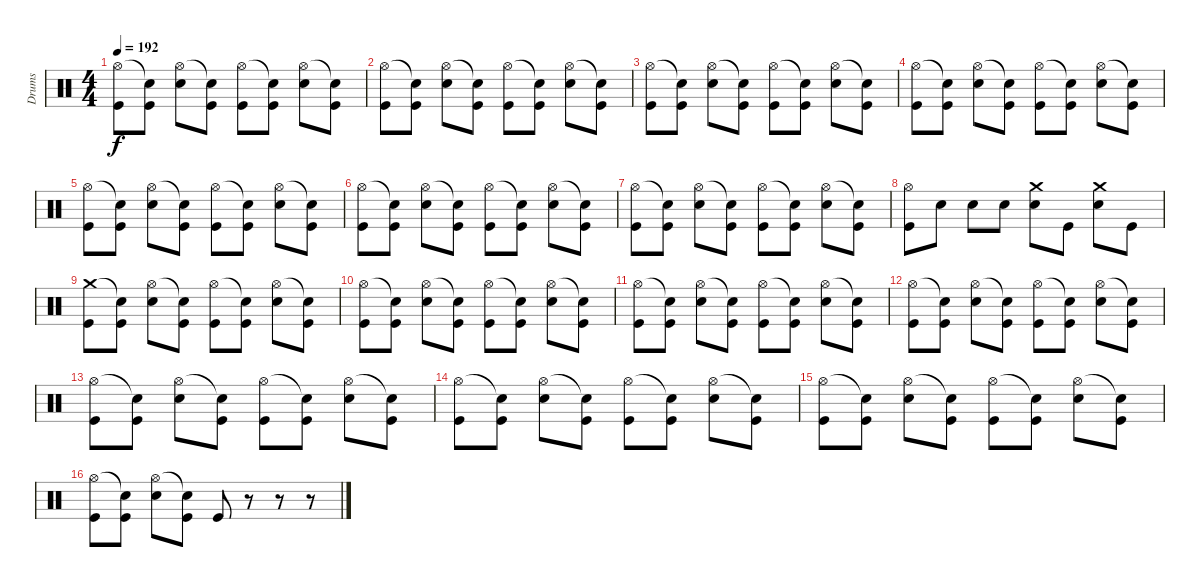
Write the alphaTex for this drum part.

\track ("Drums" "Drums") {instrument percussion}
\staff {score}
\articulation defaults
\ts (4 4)
\tempo 192
\clef neutral
\ks c
("Kick (hit)" "Hi-Hat (open)").8{dy f} ("Kick (hit)" "Snare (hit)"{t}).8 ("Snare (hit) 2" "Hi-Hat (open)").8 ("Kick (hit)" "Snare (hit)"{t}).8 ("Kick (hit)" "Hi-Hat (open)").8 ("Kick (hit)" "Snare (hit)"{t}).8 ("Snare (hit) 2" "Hi-Hat (open)").8 ("Kick (hit)" "Snare (hit)"{t}).8 |
("Kick (hit)" "Hi-Hat (open)").8 ("Kick (hit)" "Snare (hit)"{t}).8 ("Snare (hit) 2" "Hi-Hat (open)").8 ("Kick (hit)" "Snare (hit)"{t}).8 ("Kick (hit)" "Hi-Hat (open)").8 ("Kick (hit)" "Snare (hit)"{t}).8 ("Snare (hit) 2" "Hi-Hat (open)").8 ("Kick (hit)" "Snare (hit)"{t}).8 |
("Kick (hit)" "Hi-Hat (open)").8 ("Kick (hit)" "Snare (hit)"{t}).8 ("Snare (hit) 2" "Hi-Hat (open)").8 ("Kick (hit)" "Snare (hit)"{t}).8 ("Kick (hit)" "Hi-Hat (open)").8 ("Kick (hit)" "Snare (hit)"{t}).8 ("Snare (hit) 2" "Hi-Hat (open)").8 ("Kick (hit)" "Snare (hit)"{t}).8 |
("Kick (hit)" "Hi-Hat (open)").8 ("Kick (hit)" "Snare (hit)"{t}).8 ("Snare (hit) 2" "Hi-Hat (open)").8 ("Kick (hit)" "Snare (hit)"{t}).8 ("Kick (hit)" "Hi-Hat (open)").8 ("Kick (hit)" "Snare (hit)"{t}).8 ("Snare (hit) 2" "Hi-Hat (open)").8 ("Kick (hit)" "Snare (hit)"{t}).8 |
("Kick (hit)" "Hi-Hat (open)").8 ("Kick (hit)" "Snare (hit)"{t}).8 ("Snare (hit) 2" "Hi-Hat (open)").8 ("Kick (hit)" "Snare (hit)"{t}).8 ("Kick (hit)" "Hi-Hat (open)").8 ("Kick (hit)" "Snare (hit)"{t}).8 ("Snare (hit) 2" "Hi-Hat (open)").8 ("Kick (hit)" "Snare (hit)"{t}).8 |
("Kick (hit)" "Hi-Hat (open)").8 ("Kick (hit)" "Snare (hit)"{t}).8 ("Snare (hit) 2" "Hi-Hat (open)").8 ("Kick (hit)" "Snare (hit)"{t}).8 ("Kick (hit)" "Hi-Hat (open)").8 ("Kick (hit)" "Snare (hit)"{t}).8 ("Snare (hit) 2" "Hi-Hat (open)").8 ("Kick (hit)" "Snare (hit)"{t}).8 |
("Kick (hit)" "Hi-Hat (open)").8 ("Kick (hit)" "Snare (hit)"{t}).8 ("Snare (hit) 2" "Hi-Hat (open)").8 ("Kick (hit)" "Snare (hit)"{t}).8 ("Kick (hit)" "Hi-Hat (open)").8 ("Kick (hit)" "Snare (hit)"{t}).8 ("Snare (hit) 2" "Hi-Hat (open)").8 ("Kick (hit)" "Snare (hit)"{t}).8 |
("Kick (hit)" "Hi-Hat (open)").8 "Snare (hit) 2".8 "Snare (hit) 2".8 "Snare (hit) 2".8 ("Snare (hit) 2" "Crash medium (hit)").8 "Kick (hit)".8 ("Snare (hit) 2" "Crash medium (hit)").8 "Kick (hit)".8 |
("Kick (hit)" "Crash medium (hit)").8 ("Kick (hit)" "Snare (hit)"{t}).8 ("Snare (hit) 2" "Hi-Hat (open)").8 ("Kick (hit)" "Snare (hit)"{t}).8 ("Kick (hit)" "Hi-Hat (open)").8 ("Kick (hit)" "Snare (hit)"{t}).8 ("Snare (hit) 2" "Hi-Hat (open)").8 ("Kick (hit)" "Snare (hit)"{t}).8 |
("Kick (hit)" "Hi-Hat (open)").8 ("Kick (hit)" "Snare (hit)"{t}).8 ("Snare (hit) 2" "Hi-Hat (open)").8 ("Kick (hit)" "Snare (hit)"{t}).8 ("Kick (hit)" "Hi-Hat (open)").8 ("Kick (hit)" "Snare (hit)"{t}).8 ("Snare (hit) 2" "Hi-Hat (open)").8 ("Kick (hit)" "Snare (hit)"{t}).8 |
("Kick (hit)" "Hi-Hat (open)").8 ("Kick (hit)" "Snare (hit)"{t}).8 ("Snare (hit) 2" "Hi-Hat (open)").8 ("Kick (hit)" "Snare (hit)"{t}).8 ("Kick (hit)" "Hi-Hat (open)").8 ("Kick (hit)" "Snare (hit)"{t}).8 ("Snare (hit) 2" "Hi-Hat (open)").8 ("Kick (hit)" "Snare (hit)"{t}).8 |
("Kick (hit)" "Hi-Hat (open)").8 ("Kick (hit)" "Snare (hit)"{t}).8 ("Snare (hit) 2" "Hi-Hat (open)").8 ("Kick (hit)" "Snare (hit)"{t}).8 ("Kick (hit)" "Hi-Hat (open)").8 ("Kick (hit)" "Snare (hit)"{t}).8 ("Snare (hit) 2" "Hi-Hat (open)").8 ("Kick (hit)" "Snare (hit)"{t}).8 |
("Kick (hit)" "Hi-Hat (open)").8 ("Kick (hit)" "Snare (hit)"{t}).8 ("Snare (hit) 2" "Hi-Hat (open)").8 ("Kick (hit)" "Snare (hit)"{t}).8 ("Kick (hit)" "Hi-Hat (open)").8 ("Kick (hit)" "Snare (hit)"{t}).8 ("Snare (hit) 2" "Hi-Hat (open)").8 ("Kick (hit)" "Snare (hit)"{t}).8 |
("Kick (hit)" "Hi-Hat (open)").8 ("Kick (hit)" "Snare (hit)"{t}).8 ("Snare (hit) 2" "Hi-Hat (open)").8 ("Kick (hit)" "Snare (hit)"{t}).8 ("Kick (hit)" "Hi-Hat (open)").8 ("Kick (hit)" "Snare (hit)"{t}).8 ("Snare (hit) 2" "Hi-Hat (open)").8 ("Kick (hit)" "Snare (hit)"{t}).8 |
("Kick (hit)" "Hi-Hat (open)").8 ("Kick (hit)" "Snare (hit)"{t}).8 ("Snare (hit) 2" "Hi-Hat (open)").8 ("Kick (hit)" "Snare (hit)"{t}).8 ("Kick (hit)" "Hi-Hat (open)").8 ("Kick (hit)" "Snare (hit)"{t}).8 ("Snare (hit) 2" "Hi-Hat (open)").8 ("Kick (hit)" "Snare (hit)"{t}).8 |
("Kick (hit)" "Hi-Hat (open)").8 ("Kick (hit)" "Snare (hit)"{t}).8 ("Snare (hit) 2" "Hi-Hat (open)").8 ("Kick (hit)" "Snare (hit)"{t}).8 "Kick (hit)".8 r.8 r.8 r.8
